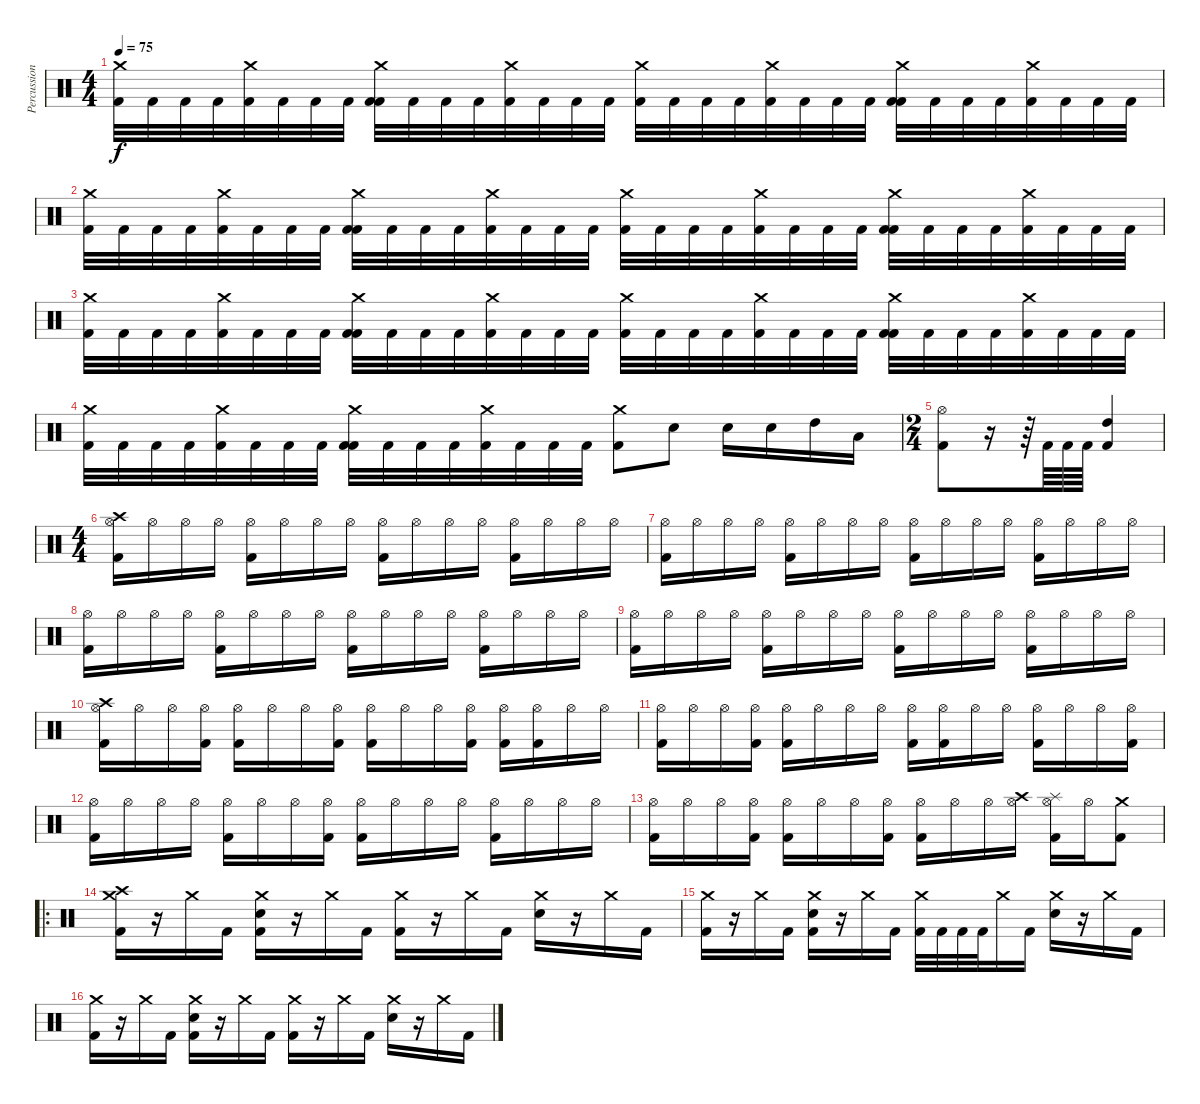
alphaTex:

\track ("Percussions" "Percussion") {instrument percussion}
\staff {score}
\articulation defaults
\ts (4 4)
\tempo 75
\clef neutral
\ks c
("Crash medium (hit)" "Kick (hit) 2").32{dy f} "Kick (hit) 2".32 "Kick (hit) 2".32 "Kick (hit) 2".32 ("Crash medium (hit)" "Kick (hit) 2").32 "Kick (hit) 2".32 "Kick (hit) 2".32 "Kick (hit) 2".32 ("Crash medium (hit)" "Kick (hit) 2" "Kick (hit) 2").32 "Kick (hit) 2".32 "Kick (hit) 2".32 "Kick (hit) 2".32 ("Crash medium (hit)" "Kick (hit) 2").32 "Kick (hit) 2".32 "Kick (hit) 2".32 "Kick (hit) 2".32 ("Crash medium (hit)" "Kick (hit) 2").32 "Kick (hit) 2".32 "Kick (hit) 2".32 "Kick (hit) 2".32 ("Crash medium (hit)" "Kick (hit) 2").32 "Kick (hit) 2".32 "Kick (hit) 2".32 "Kick (hit) 2".32 ("Crash medium (hit)" "Kick (hit) 2" "Kick (hit) 2").32 "Kick (hit) 2".32 "Kick (hit) 2".32 "Kick (hit) 2".32 ("Crash medium (hit)" "Kick (hit) 2").32 "Kick (hit) 2".32 "Kick (hit) 2".32 "Kick (hit) 2".32 |
("Crash medium (hit)" "Kick (hit) 2").32 "Kick (hit) 2".32 "Kick (hit) 2".32 "Kick (hit) 2".32 ("Crash medium (hit)" "Kick (hit) 2").32 "Kick (hit) 2".32 "Kick (hit) 2".32 "Kick (hit) 2".32 ("Crash medium (hit)" "Kick (hit) 2" "Kick (hit) 2").32 "Kick (hit) 2".32 "Kick (hit) 2".32 "Kick (hit) 2".32 ("Crash medium (hit)" "Kick (hit) 2").32 "Kick (hit) 2".32 "Kick (hit) 2".32 "Kick (hit) 2".32 ("Crash medium (hit)" "Kick (hit) 2").32 "Kick (hit) 2".32 "Kick (hit) 2".32 "Kick (hit) 2".32 ("Crash medium (hit)" "Kick (hit) 2").32 "Kick (hit) 2".32 "Kick (hit) 2".32 "Kick (hit) 2".32 ("Crash medium (hit)" "Kick (hit) 2" "Kick (hit) 2").32 "Kick (hit) 2".32 "Kick (hit) 2".32 "Kick (hit) 2".32 ("Crash medium (hit)" "Kick (hit) 2").32 "Kick (hit) 2".32 "Kick (hit) 2".32 "Kick (hit) 2".32 |
("Crash medium (hit)" "Kick (hit) 2").32 "Kick (hit) 2".32 "Kick (hit) 2".32 "Kick (hit) 2".32 ("Crash medium (hit)" "Kick (hit) 2").32 "Kick (hit) 2".32 "Kick (hit) 2".32 "Kick (hit) 2".32 ("Crash medium (hit)" "Kick (hit) 2" "Kick (hit) 2").32 "Kick (hit) 2".32 "Kick (hit) 2".32 "Kick (hit) 2".32 ("Crash medium (hit)" "Kick (hit) 2").32 "Kick (hit) 2".32 "Kick (hit) 2".32 "Kick (hit) 2".32 ("Crash medium (hit)" "Kick (hit) 2").32 "Kick (hit) 2".32 "Kick (hit) 2".32 "Kick (hit) 2".32 ("Crash medium (hit)" "Kick (hit) 2").32 "Kick (hit) 2".32 "Kick (hit) 2".32 "Kick (hit) 2".32 ("Crash medium (hit)" "Kick (hit) 2" "Kick (hit) 2").32 "Kick (hit) 2".32 "Kick (hit) 2".32 "Kick (hit) 2".32 ("Crash medium (hit)" "Kick (hit) 2").32 "Kick (hit) 2".32 "Kick (hit) 2".32 "Kick (hit) 2".32 |
("Crash medium (hit)" "Kick (hit) 2").32 "Kick (hit) 2".32 "Kick (hit) 2".32 "Kick (hit) 2".32 ("Crash medium (hit)" "Kick (hit) 2").32 "Kick (hit) 2".32 "Kick (hit) 2".32 "Kick (hit) 2".32 ("Crash medium (hit)" "Kick (hit) 2" "Kick (hit) 2").32 "Kick (hit) 2".32 "Kick (hit) 2".32 "Kick (hit) 2".32 ("Crash medium (hit)" "Kick (hit) 2").32 "Kick (hit) 2".32 "Kick (hit) 2".32 "Kick (hit) 2".32 ("Crash medium (hit)" "Kick (hit) 2").8 "Snare (hit) 2".8 "Snare (hit) 2".16 "Snare (hit) 2".16 "High Tom (hit)".16 "Low Tom (hit)".16 |
\ts (2 4)
("Hi-Hat (open)" "Kick (hit) 2").8 r.16 r.64 "Kick (hit) 2".64 "Kick (hit) 2".64 "Kick (hit) 2".64 ("High Tom (hit)" "Kick (hit) 2").4 |
\ts (4 4)
("Crash high (hit)" "Hi-Hat (open)" "Kick (hit) 2").16 "Hi-Hat (open)".16 "Hi-Hat (open)".16 "Hi-Hat (open)".16 ("Hi-Hat (open)" "Kick (hit) 2").16 "Hi-Hat (open)".16 "Hi-Hat (open)".16 "Hi-Hat (open)".16 ("Hi-Hat (open)" "Kick (hit) 2").16 "Hi-Hat (open)".16 "Hi-Hat (open)".16 "Hi-Hat (open)".16 ("Hi-Hat (open)" "Kick (hit) 2").16 "Hi-Hat (open)".16 "Hi-Hat (open)".16 "Hi-Hat (open)".16 |
("Hi-Hat (open)" "Kick (hit) 2").16 "Hi-Hat (open)".16 "Hi-Hat (open)".16 "Hi-Hat (open)".16 ("Hi-Hat (open)" "Kick (hit) 2").16 "Hi-Hat (open)".16 "Hi-Hat (open)".16 "Hi-Hat (open)".16 ("Hi-Hat (open)" "Kick (hit) 2").16 "Hi-Hat (open)".16 "Hi-Hat (open)".16 "Hi-Hat (open)".16 ("Hi-Hat (open)" "Kick (hit) 2").16 "Hi-Hat (open)".16 "Hi-Hat (open)".16 "Hi-Hat (open)".16 |
("Hi-Hat (open)" "Kick (hit) 2").16 "Hi-Hat (open)".16 "Hi-Hat (open)".16 "Hi-Hat (open)".16 ("Hi-Hat (open)" "Kick (hit) 2").16 "Hi-Hat (open)".16 "Hi-Hat (open)".16 "Hi-Hat (open)".16 ("Hi-Hat (open)" "Kick (hit) 2").16 "Hi-Hat (open)".16 "Hi-Hat (open)".16 "Hi-Hat (open)".16 ("Hi-Hat (open)" "Kick (hit) 2").16 "Hi-Hat (open)".16 "Hi-Hat (open)".16 "Hi-Hat (open)".16 |
("Hi-Hat (open)" "Kick (hit) 2").16 "Hi-Hat (open)".16 "Hi-Hat (open)".16 "Hi-Hat (open)".16 ("Hi-Hat (open)" "Kick (hit) 2").16 "Hi-Hat (open)".16 "Hi-Hat (open)".16 "Hi-Hat (open)".16 ("Hi-Hat (open)" "Kick (hit) 2").16 "Hi-Hat (open)".16 "Hi-Hat (open)".16 "Hi-Hat (open)".16 ("Hi-Hat (open)" "Kick (hit) 2").16 "Hi-Hat (open)".16 "Hi-Hat (open)".16 "Hi-Hat (open)".16 |
("Crash high (hit)" "Hi-Hat (open)" "Kick (hit) 2").16 "Hi-Hat (open)".16 "Hi-Hat (open)".16 ("Hi-Hat (open)" "Kick (hit) 2").16 ("Hi-Hat (open)" "Kick (hit) 2").16 "Hi-Hat (open)".16 "Hi-Hat (open)".16 ("Hi-Hat (open)" "Kick (hit) 2").16 ("Hi-Hat (open)" "Kick (hit) 2").16 "Hi-Hat (open)".16 "Hi-Hat (open)".16 ("Hi-Hat (open)" "Kick (hit) 2").16 ("Hi-Hat (open)" "Kick (hit) 2").16 ("Hi-Hat (open)" "Kick (hit) 2").16 "Hi-Hat (open)".16 "Hi-Hat (open)".16 |
("Hi-Hat (open)" "Kick (hit) 2").16 "Hi-Hat (open)".16 "Hi-Hat (open)".16 ("Hi-Hat (open)" "Kick (hit) 2").16 ("Hi-Hat (open)" "Kick (hit) 2").16 "Hi-Hat (open)".16 "Hi-Hat (open)".16 "Hi-Hat (open)".16 ("Hi-Hat (open)" "Kick (hit) 2").16 ("Hi-Hat (open)" "Kick (hit) 2").16 "Hi-Hat (open)".16 "Hi-Hat (open)".16 ("Hi-Hat (open)" "Kick (hit) 2").16 "Hi-Hat (open)".16 "Hi-Hat (open)".16 ("Hi-Hat (open)" "Kick (hit) 2").16 |
("Hi-Hat (open)" "Kick (hit) 2").16 "Hi-Hat (open)".16 "Hi-Hat (open)".16 "Hi-Hat (open)".16 ("Hi-Hat (open)" "Kick (hit) 2").16 "Hi-Hat (open)".16 "Hi-Hat (open)".16 ("Hi-Hat (open)" "Kick (hit) 2").16 ("Hi-Hat (open)" "Kick (hit) 2").16 "Hi-Hat (open)".16 "Hi-Hat (open)".16 "Hi-Hat (open)".16 ("Hi-Hat (open)" "Kick (hit) 2").16 "Hi-Hat (open)".16 "Hi-Hat (open)".16 "Hi-Hat (open)".16 |
("Hi-Hat (open)" "Kick (hit) 2").16 "Hi-Hat (open)".16 "Hi-Hat (open)".16 ("Hi-Hat (open)" "Kick (hit) 2").16 ("Hi-Hat (open)" "Kick (hit) 2").16 "Hi-Hat (open)".16 "Hi-Hat (open)".16 ("Hi-Hat (open)" "Kick (hit) 2").16 ("Hi-Hat (open)" "Kick (hit) 2").16 "Hi-Hat (open)".16 "Hi-Hat (open)".16 ("Crash high (hit)" "Hi-Hat (open)").16 ("Hi-Hat (open)" "Splash (hit)" "Kick (hit) 2").16 "Hi-Hat (open)".16 ("Crash medium (hit)" "Kick (hit) 2").8 |
\ro
("Crash high (hit)" "Crash medium (hit)" "Kick (hit) 2").16 r.16 "Crash medium (hit)".16 "Kick (hit) 2".16 ("Crash medium (hit)" "Snare (hit) 2" "Kick (hit) 2").16 r.16 "Crash medium (hit)".16 "Kick (hit) 2".16 ("Crash medium (hit)" "Kick (hit) 2").16 r.16 "Crash medium (hit)".16 "Kick (hit) 2".16 ("Crash medium (hit)" "Snare (hit) 2").16 r.16 "Crash medium (hit)".16 "Kick (hit) 2".16 |
("Crash medium (hit)" "Kick (hit) 2").16 r.16 "Crash medium (hit)".16 "Kick (hit) 2".16 ("Crash medium (hit)" "Snare (hit) 2" "Kick (hit) 2").16 r.16 "Crash medium (hit)".16 "Kick (hit) 2".16 ("Crash medium (hit)" "Kick (hit) 2").32 "Kick (hit) 2".32 "Kick (hit) 2".32 "Kick (hit) 2".32 "Crash medium (hit)".16 "Kick (hit) 2".16 ("Crash medium (hit)" "Snare (hit) 2").16 r.16 "Crash medium (hit)".16 "Kick (hit) 2".16 |
("Crash medium (hit)" "Kick (hit) 2").16 r.16 "Crash medium (hit)".16 "Kick (hit) 2".16 ("Crash medium (hit)" "Snare (hit) 2" "Kick (hit) 2").16 r.16 "Crash medium (hit)".16 "Kick (hit) 2".16 ("Crash medium (hit)" "Kick (hit) 2").16 r.16 "Crash medium (hit)".16 "Kick (hit) 2".16 ("Crash medium (hit)" "Snare (hit) 2").16 r.16 "Crash medium (hit)".16 "Kick (hit) 2".16
